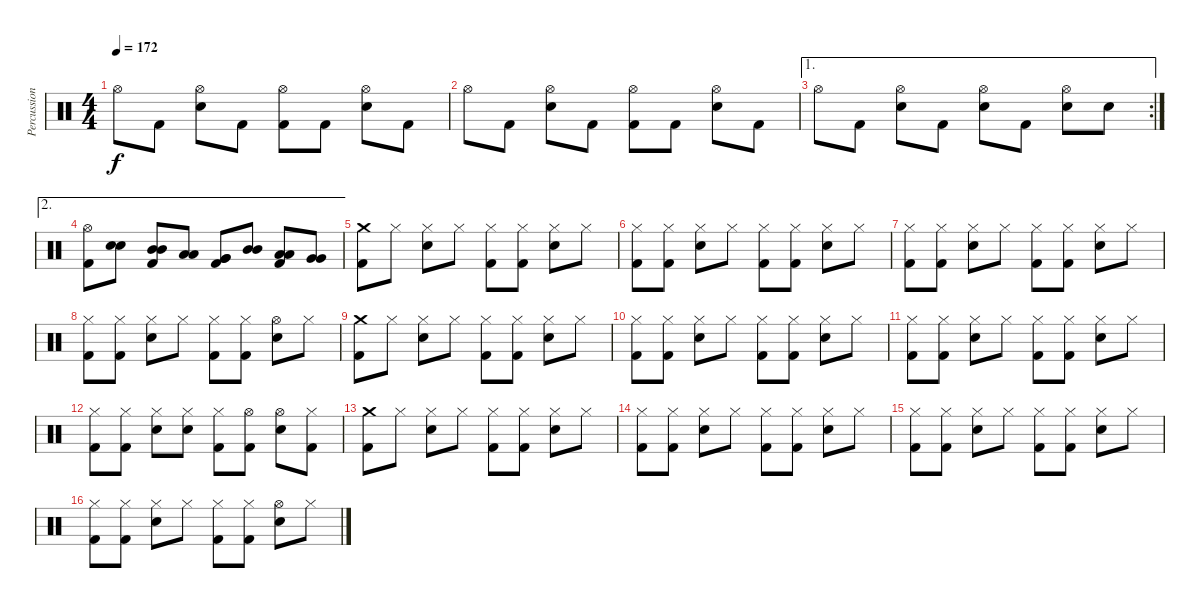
\track ("Percussions" "Percussion") {instrument percussion}
\staff {score}
\articulation defaults
\ts (4 4)
\tempo 172
\clef neutral
\ks c "Hi-Hat (open)".8{dy f} "Kick (hit) 2".8
("Hi-Hat (open)" "Electric Snare (hit)").8 "Kick (hit) 2".8 ("Hi-Hat (open)" "Kick (hit) 2").8 "Kick (hit) 2".8 ("Hi-Hat (open)" "Electric Snare (hit)").8 "Kick (hit) 2".8 |
"Hi-Hat (open)".8 "Kick (hit) 2".8 ("Hi-Hat (open)" "Electric Snare (hit)").8 "Kick (hit) 2".8 ("Hi-Hat (open)" "Kick (hit) 2").8 "Kick (hit) 2".8 ("Hi-Hat (open)" "Electric Snare (hit)").8 "Kick (hit) 2".8 |
\ae 1
\rc 2 "Hi-Hat (open)".8 "Kick (hit) 2".8
("Hi-Hat (open)" "Electric Snare (hit)").8 "Kick (hit) 2".8 ("Hi-Hat (open)" "Electric Snare (hit)").8 "Kick (hit) 2".8 ("Hi-Hat (open)" "Electric Snare (hit)").8 "Electric Snare (hit)".8 |
\ae 2
("Hi-Hat (open)" "Kick (hit) 2").8 ("Electric Snare (hit)" "Electric Snare (hit)").8 ("Mid Tom (hit)" "Mid Tom (hit)" "Kick (hit) 2").8 ("Low Tom (hit)" "Low Tom (hit)").8 ("Very Low Tom (hit)" "Very Low Tom (hit)" "Kick (hit) 2").8 ("Mid Tom (hit)" "Mid Tom (hit)").8 ("Low Tom (hit)" "Low Tom (hit)" "Kick (hit) 2").8 ("Very Low Tom (hit)" "Very Low Tom (hit)").8 |
("Crash medium (hit)" "Kick (hit) 2").8 "Hi-Hat (closed)".8 ("Hi-Hat (closed)" "Electric Snare (hit)").8 "Hi-Hat (closed)".8 ("Hi-Hat (closed)" "Kick (hit) 2").8 ("Hi-Hat (closed)" "Kick (hit) 2").8 ("Hi-Hat (closed)" "Electric Snare (hit)").8 "Hi-Hat (closed)".8 |
("Hi-Hat (closed)" "Kick (hit) 2").8 ("Hi-Hat (closed)" "Kick (hit) 2").8 ("Hi-Hat (closed)" "Electric Snare (hit)").8 "Hi-Hat (closed)".8 ("Hi-Hat (closed)" "Kick (hit) 2").8 ("Hi-Hat (closed)" "Kick (hit) 2").8 ("Hi-Hat (closed)" "Electric Snare (hit)").8 "Hi-Hat (closed)".8 |
("Hi-Hat (closed)" "Kick (hit) 2").8 ("Hi-Hat (closed)" "Kick (hit) 2").8 ("Hi-Hat (closed)" "Electric Snare (hit)").8 "Hi-Hat (closed)".8 ("Hi-Hat (closed)" "Kick (hit) 2").8 ("Hi-Hat (closed)" "Kick (hit) 2").8 ("Hi-Hat (closed)" "Electric Snare (hit)").8 "Hi-Hat (closed)".8 |
("Hi-Hat (closed)" "Kick (hit) 2").8 ("Hi-Hat (closed)" "Kick (hit) 2").8 ("Hi-Hat (closed)" "Electric Snare (hit)").8 "Hi-Hat (closed)".8 ("Hi-Hat (closed)" "Kick (hit) 2").8 ("Hi-Hat (closed)" "Kick (hit) 2").8 ("Hi-Hat (open)" "Electric Snare (hit)").8 "Hi-Hat (closed)".8 |
("Crash medium (hit)" "Kick (hit) 2").8 "Hi-Hat (closed)".8 ("Hi-Hat (closed)" "Electric Snare (hit)").8 "Hi-Hat (closed)".8 ("Hi-Hat (closed)" "Kick (hit) 2").8 ("Hi-Hat (closed)" "Kick (hit) 2").8 ("Hi-Hat (closed)" "Electric Snare (hit)").8 "Hi-Hat (closed)".8 |
("Hi-Hat (closed)" "Kick (hit) 2").8 ("Hi-Hat (closed)" "Kick (hit) 2").8 ("Hi-Hat (closed)" "Electric Snare (hit)").8 "Hi-Hat (closed)".8 ("Hi-Hat (closed)" "Kick (hit) 2").8 ("Hi-Hat (closed)" "Kick (hit) 2").8 ("Hi-Hat (closed)" "Electric Snare (hit)").8 "Hi-Hat (closed)".8 |
("Hi-Hat (closed)" "Kick (hit) 2").8 ("Hi-Hat (closed)" "Kick (hit) 2").8 ("Hi-Hat (closed)" "Electric Snare (hit)").8 "Hi-Hat (closed)".8 ("Hi-Hat (closed)" "Kick (hit) 2").8 ("Hi-Hat (closed)" "Kick (hit) 2").8 ("Hi-Hat (closed)" "Electric Snare (hit)").8 "Hi-Hat (closed)".8 |
("Hi-Hat (closed)" "Kick (hit) 2").8 ("Hi-Hat (closed)" "Kick (hit) 2").8 ("Hi-Hat (closed)" "Electric Snare (hit)").8 ("Hi-Hat (closed)" "Electric Snare (hit)").8 ("Hi-Hat (closed)" "Kick (hit) 2").8 ("Hi-Hat (open)" "Kick (hit) 2").8 ("Hi-Hat (open)" "Electric Snare (hit)").8 ("Hi-Hat (closed)" "Kick (hit) 2").8 |
("Crash medium (hit)" "Kick (hit) 2").8 "Hi-Hat (closed)".8 ("Hi-Hat (closed)" "Electric Snare (hit)").8 "Hi-Hat (closed)".8 ("Hi-Hat (closed)" "Kick (hit) 2").8 ("Hi-Hat (closed)" "Kick (hit) 2").8 ("Hi-Hat (closed)" "Electric Snare (hit)").8 "Hi-Hat (closed)".8 |
("Hi-Hat (closed)" "Kick (hit) 2").8 ("Hi-Hat (closed)" "Kick (hit) 2").8 ("Hi-Hat (closed)" "Electric Snare (hit)").8 "Hi-Hat (closed)".8 ("Hi-Hat (closed)" "Kick (hit) 2").8 ("Hi-Hat (closed)" "Kick (hit) 2").8 ("Hi-Hat (closed)" "Electric Snare (hit)").8 "Hi-Hat (closed)".8 |
("Hi-Hat (closed)" "Kick (hit) 2").8 ("Hi-Hat (closed)" "Kick (hit) 2").8 ("Hi-Hat (closed)" "Electric Snare (hit)").8 "Hi-Hat (closed)".8 ("Hi-Hat (closed)" "Kick (hit) 2").8 ("Hi-Hat (closed)" "Kick (hit) 2").8 ("Hi-Hat (closed)" "Electric Snare (hit)").8 "Hi-Hat (closed)".8 |
("Hi-Hat (closed)" "Kick (hit) 2").8 ("Hi-Hat (closed)" "Kick (hit) 2").8 ("Hi-Hat (closed)" "Electric Snare (hit)").8 "Hi-Hat (closed)".8 ("Hi-Hat (closed)" "Kick (hit) 2").8 ("Hi-Hat (closed)" "Kick (hit) 2").8 ("Hi-Hat (open)" "Electric Snare (hit)").8 "Hi-Hat (closed)".8
